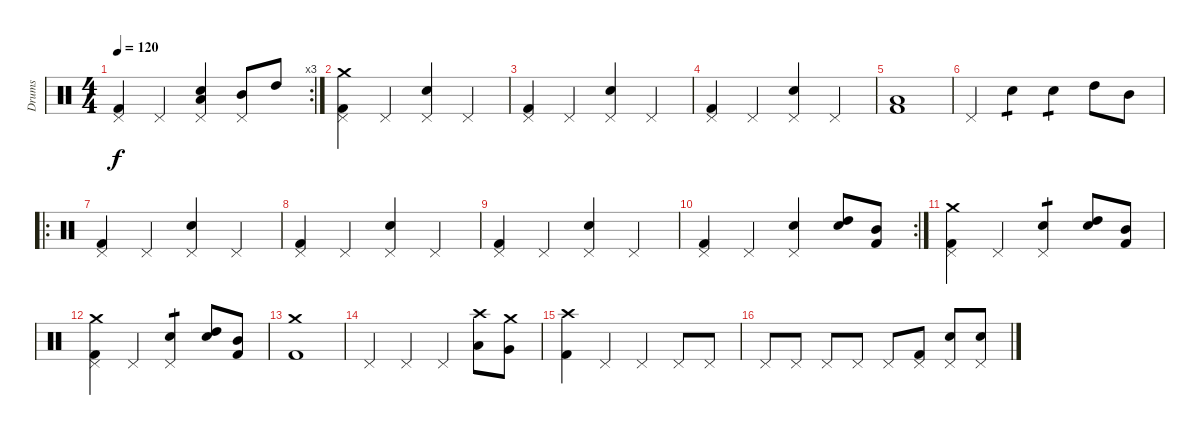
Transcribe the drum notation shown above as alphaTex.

\track ("Drums" "Drums") {instrument percussion}
\staff {score}
\articulation defaults
\rc 3
\ts (4 4)
\tempo 120
\clef neutral
\ks c
("Kick (hit) 2" "Pedal Hi-Hat (hit)").4{dy f} "Pedal Hi-Hat (hit)".4 ("Snare (hit) 2" "Low Floor Tom (hit)" "Pedal Hi-Hat (hit)").4 ("Mid Tom (hit)" "Pedal Hi-Hat (hit)").8 "High Tom (hit)".8 |
("Kick (hit) 2" "Pedal Hi-Hat (hit)" "Crash medium (hit)").4 "Pedal Hi-Hat (hit)".4 ("Snare (hit) 2" "Pedal Hi-Hat (hit)").4 "Pedal Hi-Hat (hit)".4 |
("Kick (hit) 2" "Pedal Hi-Hat (hit)").4 "Pedal Hi-Hat (hit)".4 ("Snare (hit) 2" "Pedal Hi-Hat (hit)").4 "Pedal Hi-Hat (hit)".4 |
("Kick (hit) 2" "Pedal Hi-Hat (hit)").4 "Pedal Hi-Hat (hit)".4 ("Snare (hit) 2" "Pedal Hi-Hat (hit)").4 "Pedal Hi-Hat (hit)".4 |
("Kick (hit) 2" "Low Floor Tom (hit)").1 |
"Pedal Hi-Hat (hit)".4 "Snare (hit) 2".4{tp 1} "Snare (hit) 2".4{tp 1} "High Tom (hit)".8 "Mid Tom (hit)".8 |
\ro
("Kick (hit) 2" "Pedal Hi-Hat (hit)").4 "Pedal Hi-Hat (hit)".4 ("Snare (hit) 2" "Pedal Hi-Hat (hit)").4 "Pedal Hi-Hat (hit)".4 |
("Kick (hit) 2" "Pedal Hi-Hat (hit)").4 "Pedal Hi-Hat (hit)".4 ("Snare (hit) 2" "Pedal Hi-Hat (hit)").4 "Pedal Hi-Hat (hit)".4 |
("Kick (hit) 2" "Pedal Hi-Hat (hit)").4 "Pedal Hi-Hat (hit)".4 ("Snare (hit) 2" "Pedal Hi-Hat (hit)").4 "Pedal Hi-Hat (hit)".4 |
\rc 2
("Kick (hit) 2" "Pedal Hi-Hat (hit)").4 "Pedal Hi-Hat (hit)".4 ("Snare (hit) 2" "Pedal Hi-Hat (hit)").4 ("Snare (hit) 2" "High Tom (hit)").8 ("Kick (hit) 2" "Mid Tom (hit)").8 |
("Kick (hit) 2" "Pedal Hi-Hat (hit)" "Crash medium (hit)").4 "Pedal Hi-Hat (hit)".4 ("Snare (hit) 2" "Pedal Hi-Hat (hit)").4{tp 1} ("Snare (hit) 2" "High Tom (hit)").8 ("Kick (hit) 2" "Mid Tom (hit)").8 |
("Kick (hit) 2" "Pedal Hi-Hat (hit)" "Crash medium (hit)").4 "Pedal Hi-Hat (hit)".4 ("Snare (hit) 2" "Pedal Hi-Hat (hit)").4{tp 1} ("Snare (hit) 2" "High Tom (hit)").8 ("Kick (hit) 2" "Mid Tom (hit)").8 |
("Crash medium (hit)" "Kick (hit) 2").1 |
"Pedal Hi-Hat (hit)".4 "Pedal Hi-Hat (hit)".4 "Pedal Hi-Hat (hit)".4 ("Low Tom (hit)" "Crash high (hit)").8 ("Very Low Tom (hit)" "Crash medium (hit)").8 |
("Kick (hit) 2" "Crash high (hit)").4 "Pedal Hi-Hat (hit)".4 "Pedal Hi-Hat (hit)".4 "Pedal Hi-Hat (hit)".8 "Pedal Hi-Hat (hit)".8 |
"Pedal Hi-Hat (hit)".8 "Pedal Hi-Hat (hit)".8 "Pedal Hi-Hat (hit)".8 "Pedal Hi-Hat (hit)".8 "Pedal Hi-Hat (hit)".8 ("Kick (hit) 2" "Pedal Hi-Hat (hit)").8 ("Snare (hit) 2" "Pedal Hi-Hat (hit)").8 ("Snare (hit) 2" "Pedal Hi-Hat (hit)").8
